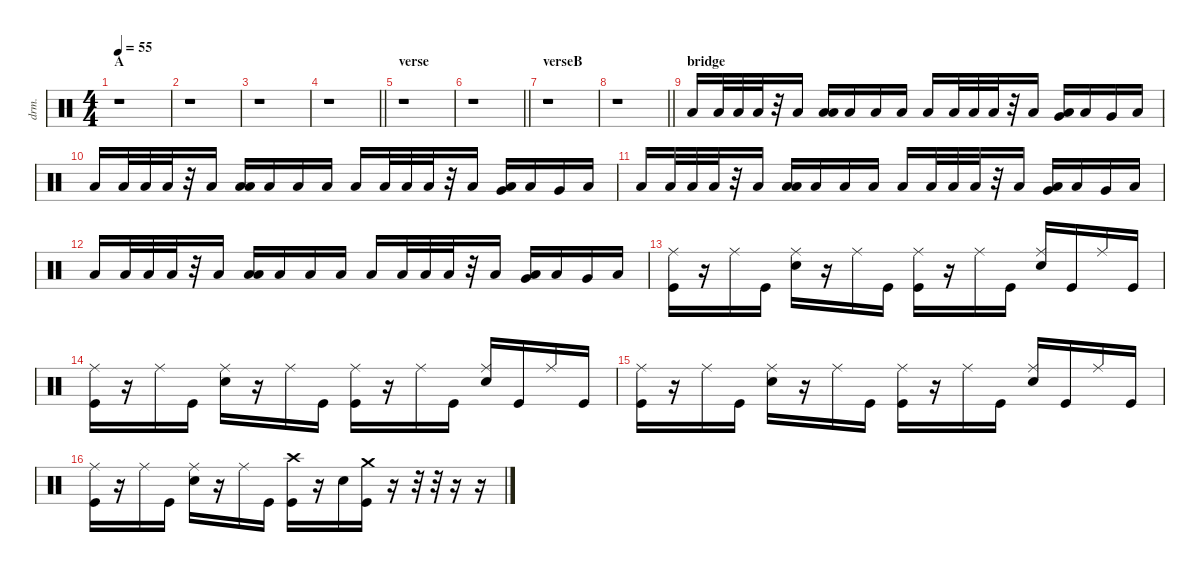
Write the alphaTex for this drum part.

\defaultSystemsLayout 4
\hideDynamics
\bracketExtendMode nobrackets
\otherSystemsTrackNameOrientation horizontal
\track ("drums" "drm.") {instrument percussion}
\staff {score}
\articulation defaults
\ts (4 4)
\beaming (8 2 2 2 2)
\section ("" "A")
\tempo 55
\clef neutral
\ks c
r.1{dy mp beam Down} |
r.1{beam Down} |
r.1{beam Down} |
\barLineRight lightlight
r.1{beam Down} |
\section ("" "verse")
r.1{beam Down} |
\barLineRight lightlight
r.1{beam Down} |
\section ("" "verseB")
r.1{beam Down} |
\barLineRight lightlight
r.1{beam Down} |
\section ("" "bridge")
"Low Floor Tom (hit)".16{beam Up} "Low Floor Tom (hit)".32{beam Up} "Low Tom (hit)".32{beam Up} "Low Floor Tom (hit)".32{beam Up} r.32{beam Up} "Low Floor Tom (hit)".16{beam Up} ("Low Floor Tom (hit)" "Low Tom (hit)").16{beam Up} "Low Floor Tom (hit)".16{beam Up} "Low Floor Tom (hit)".16{beam Up} "Low Floor Tom (hit)".16{beam Up} "Low Floor Tom (hit)".16{beam Up} "Low Floor Tom (hit)".32{beam Up} "Low Tom (hit)".32{beam Up} "Low Floor Tom (hit)".32{beam Up} r.32{beam Up} "Low Floor Tom (hit)".16{beam Up} ("Very Low Tom (hit)" "Low Tom (hit)").16{beam Up} "Low Tom (hit)".16{beam Up} "Very Low Tom (hit)".16{dy f beam Up} "Low Floor Tom (hit)".16{dy mp beam Up} |
"Low Floor Tom (hit)".16{beam Up} "Low Floor Tom (hit)".32{beam Up} "Low Tom (hit)".32{beam Up} "Low Floor Tom (hit)".32{beam Up} r.32{beam Up} "Low Floor Tom (hit)".16{beam Up} ("Low Floor Tom (hit)" "Low Tom (hit)").16{beam Up} "Low Floor Tom (hit)".16{beam Up} "Low Floor Tom (hit)".16{beam Up} "Low Floor Tom (hit)".16{beam Up} "Low Floor Tom (hit)".16{beam Up} "Low Floor Tom (hit)".32{beam Up} "Low Tom (hit)".32{beam Up} "Low Floor Tom (hit)".32{beam Up} r.32{beam Up} "Low Floor Tom (hit)".16{beam Up} ("Very Low Tom (hit)" "Low Tom (hit)").16{beam Up} "Low Floor Tom (hit)".16{beam Up} "Very Low Tom (hit)".16{beam Up} "Low Floor Tom (hit)".16{beam Up} |
"Low Floor Tom (hit)".16{beam Up} "Low Floor Tom (hit)".32{beam Up} "Low Tom (hit)".32{beam Up} "Low Floor Tom (hit)".32{beam Up} r.32{beam Up} "Low Floor Tom (hit)".16{beam Up} ("Low Floor Tom (hit)" "Low Tom (hit)").16{beam Up} "Low Floor Tom (hit)".16{beam Up} "Low Floor Tom (hit)".16{beam Up} "Low Floor Tom (hit)".16{beam Up} "Low Floor Tom (hit)".16{beam Up} "Low Floor Tom (hit)".32{beam Up} "Low Tom (hit)".32{beam Up} "Low Floor Tom (hit)".32{beam Up} r.32{beam Up} "Low Floor Tom (hit)".16{beam Up} ("Very Low Tom (hit)" "Low Tom (hit)").16{beam Up} "Low Floor Tom (hit)".16{beam Up} "Very Low Tom (hit)".16{dy f beam Up} "Low Floor Tom (hit)".16{dy mp beam Up} |
"Low Floor Tom (hit)".16{beam Up} "Low Floor Tom (hit)".32{beam Up} "Low Tom (hit)".32{beam Up} "Low Floor Tom (hit)".32{beam Up} r.32{beam Up} "Low Floor Tom (hit)".16{beam Up} ("Low Floor Tom (hit)" "Low Tom (hit)").16{beam Up} "Low Floor Tom (hit)".16{beam Up} "Low Floor Tom (hit)".16{beam Up} "Low Floor Tom (hit)".16{beam Up} "Low Floor Tom (hit)".16{beam Up} "Low Floor Tom (hit)".32{beam Up} "Low Tom (hit)".32{beam Up} "Low Floor Tom (hit)".32{beam Up} r.32{beam Up} "Low Floor Tom (hit)".16{beam Up} ("Very Low Tom (hit)" "Low Tom (hit)").16{beam Up} "Low Floor Tom (hit)".16{beam Up} "Very Low Tom (hit)".16{beam Up} "Low Floor Tom (hit)".16{beam Up} |
("Ride (middle)" "Kick (hit)").16{dy f beam Down} r.16{beam Down} "Ride (middle)".16{beam Down} "Kick (hit)".16{beam Down} ("Ride (middle)" "Snare (hit) 2").16{beam Down} r.16{beam Down} "Ride (middle)".16{beam Down} "Kick (hit)".16{beam Down} ("Ride (middle)" "Kick (hit)").16{beam Down} r.16{beam Down} "Ride (middle)".16{beam Down} "Kick (hit)".16{beam Down} ("Ride (middle)" "Snare (hit) 2").16{beam Up} "Kick (hit)".16{beam Up} "Ride (middle)".16{beam Up} "Kick (hit)".16{beam Up} |
("Ride (middle)" "Kick (hit)").16{beam Down} r.16{beam Down} "Ride (middle)".16{beam Down} "Kick (hit)".16{beam Down} ("Ride (middle)" "Snare (hit) 2").16{beam Down} r.16{beam Down} "Ride (middle)".16{beam Down} "Kick (hit)".16{beam Down} ("Ride (middle)" "Kick (hit)").16{beam Down} r.16{beam Down} "Ride (middle)".16{beam Down} "Kick (hit)".16{beam Down} ("Ride (middle)" "Snare (hit) 2").16{beam Up} "Kick (hit)".16{beam Up} "Ride (middle)".16{beam Up} "Kick (hit)".16{beam Up} |
("Ride (middle)" "Kick (hit)").16{beam Down} r.16{beam Down} "Ride (middle)".16{beam Down} "Kick (hit)".16{beam Down} ("Ride (middle)" "Snare (hit) 2").16{beam Down} r.16{beam Down} "Ride (middle)".16{beam Down} "Kick (hit)".16{beam Down} ("Ride (middle)" "Kick (hit)").16{beam Down} r.16{beam Down} "Ride (middle)".16{beam Down} "Kick (hit)".16{beam Down} ("Ride (middle)" "Snare (hit) 2").16{beam Up} "Kick (hit)".16{beam Up} "Ride (middle)".16{beam Up} "Kick (hit)".16{beam Up} |
("Ride (middle)" "Kick (hit)").16{beam Down} r.16{beam Down} "Ride (middle)".16{beam Down} "Kick (hit)".16{beam Down} ("Ride (middle)" "Snare (hit) 2").16{beam Down} r.16{beam Down} "Ride (middle)".16{beam Down} "Kick (hit)".16{beam Down} ("Crash high (hit)" "Kick (hit)").16{beam Down} r.16{beam Down} "Snare (hit) 2".16{beam Down} ("Crash medium (hit)" "Kick (hit)").16{beam Down} r.16{beam Down} r.32{beam Down} r.32{beam Down} r.16{beam Down} r.16{beam Down}
